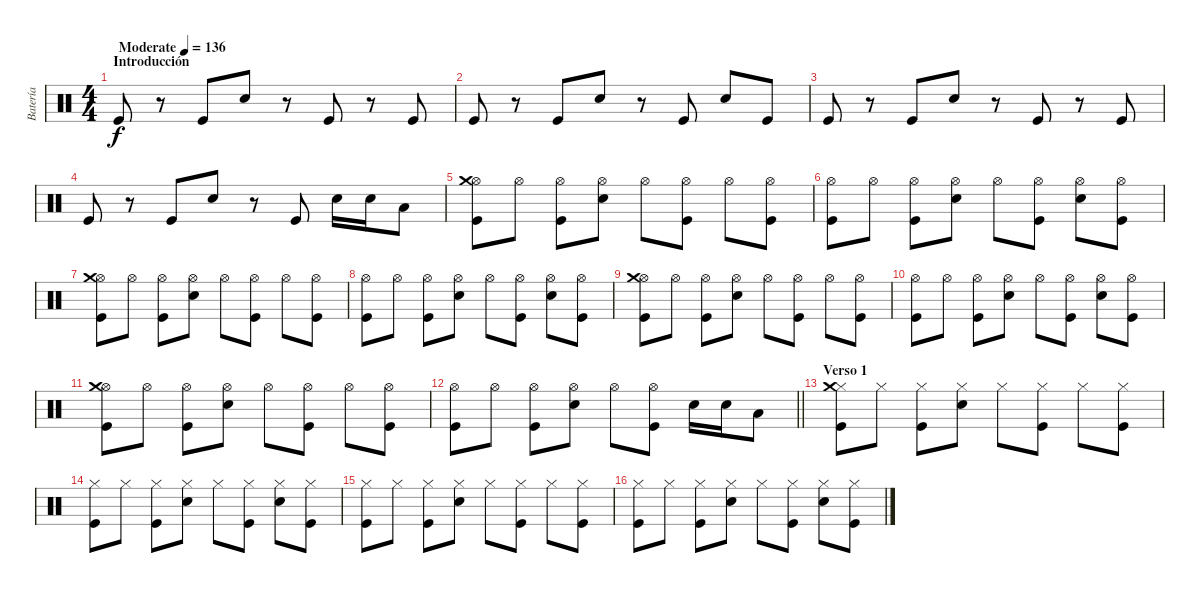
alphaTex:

\track ("Batería" "Batería") {instrument percussion}
\staff {score}
\articulation defaults
\ts (4 4)
\section ("" "Introducción")
\tempo (136 "Moderate")
\clef neutral
\ks c "Kick (hit)".8{dy f}
r.8 "Kick (hit)".8 "Snare (hit) 2".8 r.8 "Kick (hit)".8 r.8 "Kick (hit)".8 |
"Kick (hit)".8 r.8 "Kick (hit)".8 "Snare (hit) 2".8 r.8 "Kick (hit)".8 "Snare (hit) 2".8 "Kick (hit)".8 |
"Kick (hit)".8 r.8 "Kick (hit)".8 "Snare (hit) 2".8 r.8 "Kick (hit)".8 r.8 "Kick (hit)".8 |
"Kick (hit)".8 r.8 "Kick (hit)".8 "Snare (hit) 2".8 r.8 "Kick (hit)".8 "Snare (hit) 2".16 "Snare (hit) 2".16 "Low Tom (hit)".8 |
("Hi-Hat (open)" "Crash medium (hit)" "Kick (hit)").8 "Hi-Hat (open)".8 ("Hi-Hat (open)" "Kick (hit)").8 ("Hi-Hat (open)" "Snare (hit) 2").8 "Hi-Hat (open)".8 ("Hi-Hat (open)" "Kick (hit)").8 "Hi-Hat (open)".8 ("Hi-Hat (open)" "Kick (hit)").8 |
("Hi-Hat (open)" "Kick (hit)").8 "Hi-Hat (open)".8 ("Hi-Hat (open)" "Kick (hit)").8 ("Hi-Hat (open)" "Snare (hit) 2").8 "Hi-Hat (open)".8 ("Hi-Hat (open)" "Kick (hit)").8 ("Hi-Hat (open)" "Snare (hit) 2").8 ("Hi-Hat (open)" "Kick (hit)").8 |
("Hi-Hat (open)" "Crash medium (hit)" "Kick (hit)").8 "Hi-Hat (open)".8 ("Hi-Hat (open)" "Kick (hit)").8 ("Hi-Hat (open)" "Snare (hit) 2").8 "Hi-Hat (open)".8 ("Hi-Hat (open)" "Kick (hit)").8 "Hi-Hat (open)".8 ("Hi-Hat (open)" "Kick (hit)").8 |
("Hi-Hat (open)" "Kick (hit)").8 "Hi-Hat (open)".8 ("Hi-Hat (open)" "Kick (hit)").8 ("Hi-Hat (open)" "Snare (hit) 2").8 "Hi-Hat (open)".8 ("Hi-Hat (open)" "Kick (hit)").8 ("Hi-Hat (open)" "Snare (hit) 2").8 ("Hi-Hat (open)" "Kick (hit)").8 |
("Hi-Hat (open)" "Crash medium (hit)" "Kick (hit)").8 "Hi-Hat (open)".8 ("Hi-Hat (open)" "Kick (hit)").8 ("Hi-Hat (open)" "Snare (hit) 2").8 "Hi-Hat (open)".8 ("Hi-Hat (open)" "Kick (hit)").8 "Hi-Hat (open)".8 ("Hi-Hat (open)" "Kick (hit)").8 |
("Hi-Hat (open)" "Kick (hit)").8 "Hi-Hat (open)".8 ("Hi-Hat (open)" "Kick (hit)").8 ("Hi-Hat (open)" "Snare (hit) 2").8 "Hi-Hat (open)".8 ("Hi-Hat (open)" "Kick (hit)").8 ("Hi-Hat (open)" "Snare (hit) 2").8 ("Hi-Hat (open)" "Kick (hit)").8 |
("Hi-Hat (open)" "Crash medium (hit)" "Kick (hit)").8 "Hi-Hat (open)".8 ("Hi-Hat (open)" "Kick (hit)").8 ("Hi-Hat (open)" "Snare (hit) 2").8 "Hi-Hat (open)".8 ("Hi-Hat (open)" "Kick (hit)").8 "Hi-Hat (open)".8 ("Hi-Hat (open)" "Kick (hit)").8 |
\barLineRight lightlight
("Hi-Hat (open)" "Kick (hit)").8 "Hi-Hat (open)".8 ("Hi-Hat (open)" "Kick (hit)").8 ("Hi-Hat (open)" "Snare (hit) 2").8 "Hi-Hat (open)".8 ("Hi-Hat (open)" "Kick (hit)").8 "Snare (hit) 2".16 "Snare (hit) 2".16 "Low Tom (hit)".8 |
\section ("" "Verso 1")
("Hi-Hat (closed)" "Crash medium (hit)" "Kick (hit)").8 "Hi-Hat (closed)".8 ("Hi-Hat (closed)" "Kick (hit)").8 ("Hi-Hat (closed)" "Snare (hit) 2").8 "Hi-Hat (closed)".8 ("Hi-Hat (closed)" "Kick (hit)").8 "Hi-Hat (closed)".8 ("Hi-Hat (closed)" "Kick (hit)").8 |
("Hi-Hat (closed)" "Kick (hit)").8 "Hi-Hat (closed)".8 ("Hi-Hat (closed)" "Kick (hit)").8 ("Hi-Hat (closed)" "Snare (hit) 2").8 "Hi-Hat (closed)".8 ("Hi-Hat (closed)" "Kick (hit)").8 ("Hi-Hat (closed)" "Snare (hit) 2").8 ("Hi-Hat (closed)" "Kick (hit)").8 |
("Hi-Hat (closed)" "Kick (hit)").8 "Hi-Hat (closed)".8 ("Hi-Hat (closed)" "Kick (hit)").8 ("Hi-Hat (closed)" "Snare (hit) 2").8 "Hi-Hat (closed)".8 ("Hi-Hat (closed)" "Kick (hit)").8 "Hi-Hat (closed)".8 ("Hi-Hat (closed)" "Kick (hit)").8 |
("Hi-Hat (closed)" "Kick (hit)").8 "Hi-Hat (closed)".8 ("Hi-Hat (closed)" "Kick (hit)").8 ("Hi-Hat (closed)" "Snare (hit) 2").8 "Hi-Hat (closed)".8 ("Hi-Hat (closed)" "Kick (hit)").8 ("Hi-Hat (closed)" "Snare (hit) 2").8 ("Hi-Hat (closed)" "Kick (hit)").8
